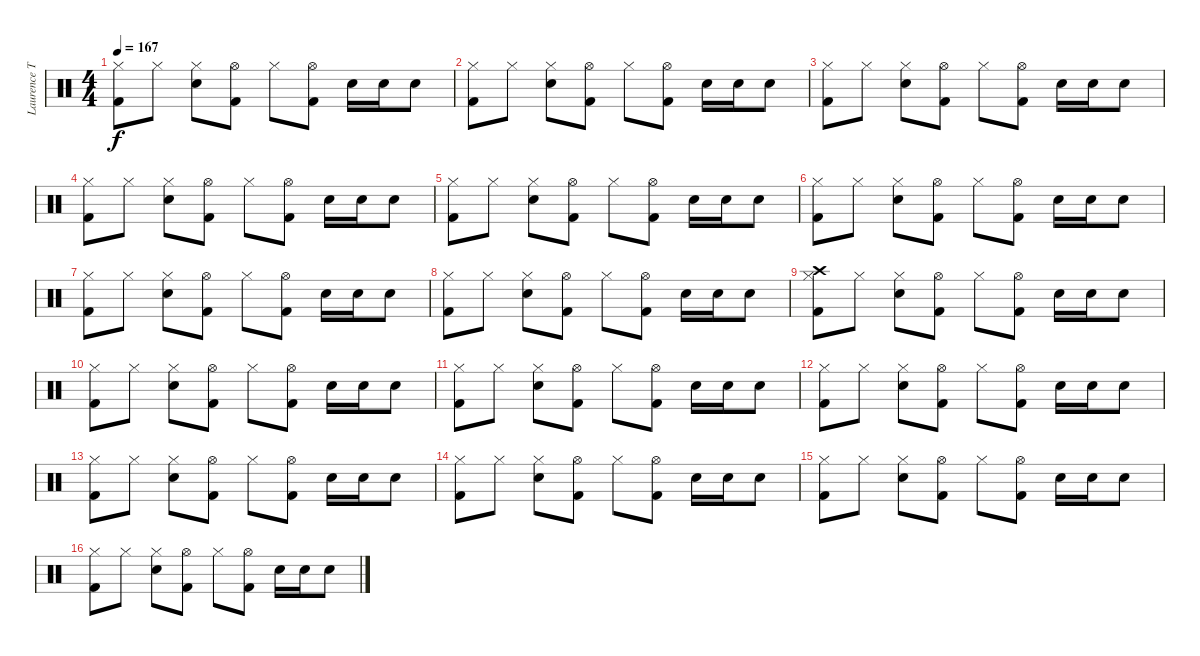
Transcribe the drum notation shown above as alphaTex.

\track ("Laurence Tolhurst" "Laurence T") {instrument percussion}
\staff {score}
\articulation defaults
\ts (4 4)
\tempo 167
\clef neutral
\ks c
("Kick (hit) 2" "Hi-Hat (closed)").8{dy f} "Hi-Hat (closed)".8 ("Hi-Hat (closed)" "Snare (hit) 2").8 ("Kick (hit) 2" "Hi-Hat (open)").8 "Hi-Hat (closed)".8 ("Hi-Hat (open)" "Kick (hit) 2").8 "Snare (hit) 2".16 "Snare (hit) 2".16 "Snare (hit) 2".8 |
("Kick (hit) 2" "Hi-Hat (closed)").8 "Hi-Hat (closed)".8 ("Hi-Hat (closed)" "Snare (hit) 2").8 ("Kick (hit) 2" "Hi-Hat (open)").8 "Hi-Hat (closed)".8 ("Hi-Hat (open)" "Kick (hit) 2").8 "Snare (hit) 2".16 "Snare (hit) 2".16 "Snare (hit) 2".8 |
("Kick (hit) 2" "Hi-Hat (closed)").8 "Hi-Hat (closed)".8 ("Hi-Hat (closed)" "Snare (hit) 2").8 ("Kick (hit) 2" "Hi-Hat (open)").8 "Hi-Hat (closed)".8 ("Hi-Hat (open)" "Kick (hit) 2").8 "Snare (hit) 2".16 "Snare (hit) 2".16 "Snare (hit) 2".8 |
("Kick (hit) 2" "Hi-Hat (closed)").8 "Hi-Hat (closed)".8 ("Hi-Hat (closed)" "Snare (hit) 2").8 ("Kick (hit) 2" "Hi-Hat (open)").8 "Hi-Hat (closed)".8 ("Hi-Hat (open)" "Kick (hit) 2").8 "Snare (hit) 2".16 "Snare (hit) 2".16 "Snare (hit) 2".8 |
("Kick (hit) 2" "Hi-Hat (closed)").8 "Hi-Hat (closed)".8 ("Hi-Hat (closed)" "Snare (hit) 2").8 ("Kick (hit) 2" "Hi-Hat (open)").8 "Hi-Hat (closed)".8 ("Hi-Hat (open)" "Kick (hit) 2").8 "Snare (hit) 2".16 "Snare (hit) 2".16 "Snare (hit) 2".8 |
("Kick (hit) 2" "Hi-Hat (closed)").8 "Hi-Hat (closed)".8 ("Hi-Hat (closed)" "Snare (hit) 2").8 ("Kick (hit) 2" "Hi-Hat (open)").8 "Hi-Hat (closed)".8 ("Hi-Hat (open)" "Kick (hit) 2").8 "Snare (hit) 2".16 "Snare (hit) 2".16 "Snare (hit) 2".8 |
("Kick (hit) 2" "Hi-Hat (closed)").8 "Hi-Hat (closed)".8 ("Hi-Hat (closed)" "Snare (hit) 2").8 ("Kick (hit) 2" "Hi-Hat (open)").8 "Hi-Hat (closed)".8 ("Hi-Hat (open)" "Kick (hit) 2").8 "Snare (hit) 2".16 "Snare (hit) 2".16 "Snare (hit) 2".8 |
("Kick (hit) 2" "Hi-Hat (closed)").8 "Hi-Hat (closed)".8 ("Hi-Hat (closed)" "Snare (hit) 2").8 ("Kick (hit) 2" "Hi-Hat (open)").8 "Hi-Hat (closed)".8 ("Hi-Hat (open)" "Kick (hit) 2").8 "Snare (hit) 2".16 "Snare (hit) 2".16 "Snare (hit) 2".8 |
("Kick (hit) 2" "Hi-Hat (closed)" "Crash high (hit)").8 "Hi-Hat (closed)".8 ("Hi-Hat (closed)" "Snare (hit) 2").8 ("Kick (hit) 2" "Hi-Hat (open)").8 "Hi-Hat (closed)".8 ("Hi-Hat (open)" "Kick (hit) 2").8 "Snare (hit) 2".16 "Snare (hit) 2".16 "Snare (hit) 2".8 |
("Kick (hit) 2" "Hi-Hat (closed)").8 "Hi-Hat (closed)".8 ("Hi-Hat (closed)" "Snare (hit) 2").8 ("Kick (hit) 2" "Hi-Hat (open)").8 "Hi-Hat (closed)".8 ("Hi-Hat (open)" "Kick (hit) 2").8 "Snare (hit) 2".16 "Snare (hit) 2".16 "Snare (hit) 2".8 |
("Kick (hit) 2" "Hi-Hat (closed)").8 "Hi-Hat (closed)".8 ("Hi-Hat (closed)" "Snare (hit) 2").8 ("Kick (hit) 2" "Hi-Hat (open)").8 "Hi-Hat (closed)".8 ("Hi-Hat (open)" "Kick (hit) 2").8 "Snare (hit) 2".16 "Snare (hit) 2".16 "Snare (hit) 2".8 |
("Kick (hit) 2" "Hi-Hat (closed)").8 "Hi-Hat (closed)".8 ("Hi-Hat (closed)" "Snare (hit) 2").8 ("Kick (hit) 2" "Hi-Hat (open)").8 "Hi-Hat (closed)".8 ("Hi-Hat (open)" "Kick (hit) 2").8 "Snare (hit) 2".16 "Snare (hit) 2".16 "Snare (hit) 2".8 |
("Kick (hit) 2" "Hi-Hat (closed)").8 "Hi-Hat (closed)".8 ("Hi-Hat (closed)" "Snare (hit) 2").8 ("Kick (hit) 2" "Hi-Hat (open)").8 "Hi-Hat (closed)".8 ("Hi-Hat (open)" "Kick (hit) 2").8 "Snare (hit) 2".16 "Snare (hit) 2".16 "Snare (hit) 2".8 |
("Kick (hit) 2" "Hi-Hat (closed)").8 "Hi-Hat (closed)".8 ("Hi-Hat (closed)" "Snare (hit) 2").8 ("Kick (hit) 2" "Hi-Hat (open)").8 "Hi-Hat (closed)".8 ("Hi-Hat (open)" "Kick (hit) 2").8 "Snare (hit) 2".16 "Snare (hit) 2".16 "Snare (hit) 2".8 |
("Kick (hit) 2" "Hi-Hat (closed)").8 "Hi-Hat (closed)".8 ("Hi-Hat (closed)" "Snare (hit) 2").8 ("Kick (hit) 2" "Hi-Hat (open)").8 "Hi-Hat (closed)".8 ("Hi-Hat (open)" "Kick (hit) 2").8 "Snare (hit) 2".16 "Snare (hit) 2".16 "Snare (hit) 2".8 |
("Kick (hit) 2" "Hi-Hat (closed)").8 "Hi-Hat (closed)".8 ("Hi-Hat (closed)" "Snare (hit) 2").8 ("Kick (hit) 2" "Hi-Hat (open)").8 "Hi-Hat (closed)".8 ("Hi-Hat (open)" "Kick (hit) 2").8 "Snare (hit) 2".16 "Snare (hit) 2".16 "Snare (hit) 2".8
